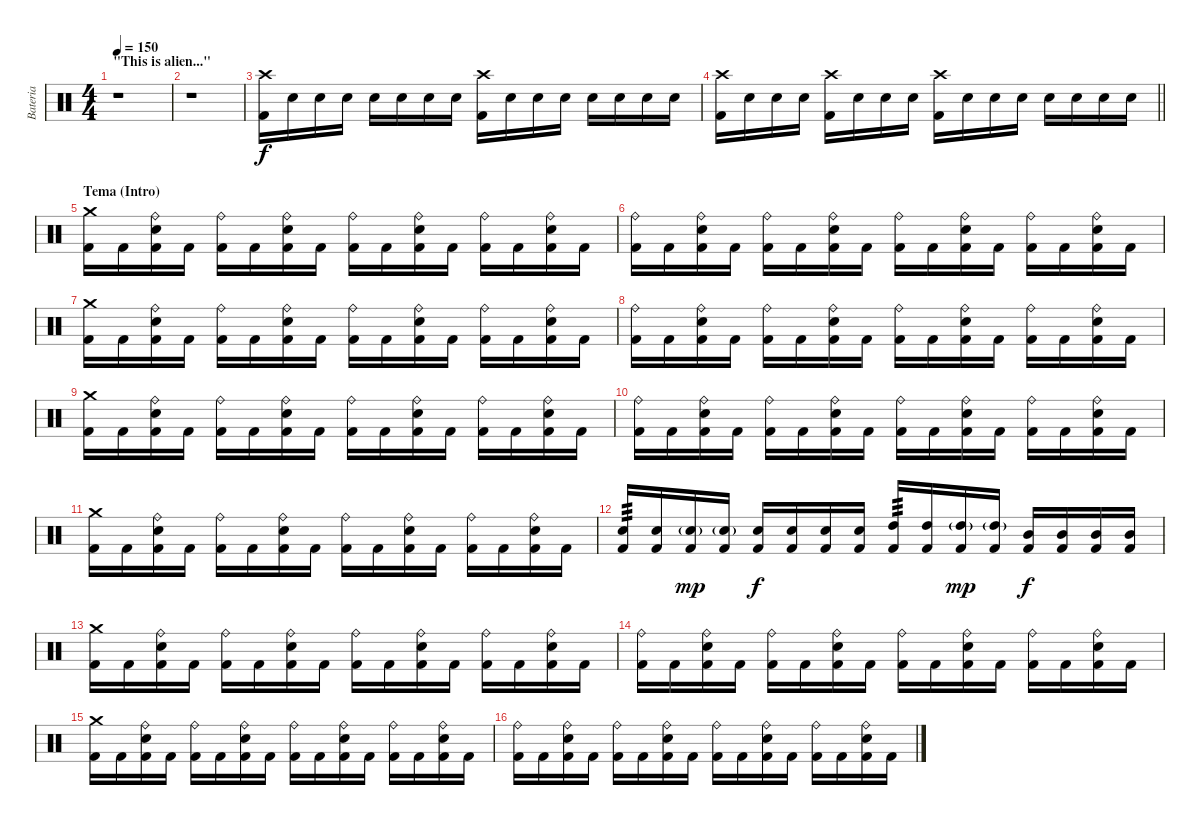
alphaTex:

\track ("Bateria" "Bateria") {instrument percussion}
\staff {score}
\articulation defaults
\ts (4 4)
\section ("" "\"This is alien...\"")
\tempo 150
\clef neutral
\ks c
r.1{dy f} |
r.1 |
("Crash high (hit)" "Kick (hit) 2").16 "Electric Snare (hit)".16 "Electric Snare (hit)".16 "Electric Snare (hit)".16 "Electric Snare (hit)".16 "Electric Snare (hit)".16 "Electric Snare (hit)".16 "Electric Snare (hit)".16 ("Crash high (hit)" "Kick (hit) 2").16 "Electric Snare (hit)".16 "Electric Snare (hit)".16 "Electric Snare (hit)".16 "Electric Snare (hit)".16 "Electric Snare (hit)".16 "Electric Snare (hit)".16 "Electric Snare (hit)".16 |
\barLineRight lightlight
("Crash high (hit)" "Kick (hit) 2").16 "Electric Snare (hit)".16 "Electric Snare (hit)".16 "Electric Snare (hit)".16 ("Crash high (hit)" "Kick (hit) 2").16 "Electric Snare (hit)".16 "Electric Snare (hit)".16 "Electric Snare (hit)".16 ("Crash high (hit)" "Kick (hit) 2").16 "Electric Snare (hit)".16 "Electric Snare (hit)".16 "Electric Snare (hit)".16 "Electric Snare (hit)".16 "Electric Snare (hit)".16 "Electric Snare (hit)".16 "Electric Snare (hit)".16 |
\section ("" "Tema (Intro)")
("Crash medium (hit)" "Kick (hit) 2").16 "Kick (hit) 2".16 ("Ride (bell)" "Electric Snare (hit)" "Kick (hit) 2").16 "Kick (hit) 2".16 ("Ride (bell)" "Kick (hit) 2").16 "Kick (hit) 2".16 ("Ride (bell)" "Electric Snare (hit)" "Kick (hit) 2").16 "Kick (hit) 2".16 ("Ride (bell)" "Kick (hit) 2").16 "Kick (hit) 2".16 ("Ride (bell)" "Electric Snare (hit)" "Kick (hit) 2").16 "Kick (hit) 2".16 ("Ride (bell)" "Kick (hit) 2").16 "Kick (hit) 2".16 ("Ride (bell)" "Electric Snare (hit)" "Kick (hit) 2").16 "Kick (hit) 2".16 |
("Ride (bell)" "Kick (hit) 2").16 "Kick (hit) 2".16 ("Ride (bell)" "Electric Snare (hit)" "Kick (hit) 2").16 "Kick (hit) 2".16 ("Ride (bell)" "Kick (hit) 2").16 "Kick (hit) 2".16 ("Ride (bell)" "Electric Snare (hit)" "Kick (hit) 2").16 "Kick (hit) 2".16 ("Ride (bell)" "Kick (hit) 2").16 "Kick (hit) 2".16 ("Ride (bell)" "Electric Snare (hit)" "Kick (hit) 2").16 "Kick (hit) 2".16 ("Ride (bell)" "Kick (hit) 2").16 "Kick (hit) 2".16 ("Ride (bell)" "Electric Snare (hit)" "Kick (hit) 2").16 "Kick (hit) 2".16 |
("Crash medium (hit)" "Kick (hit) 2").16 "Kick (hit) 2".16 ("Ride (bell)" "Electric Snare (hit)" "Kick (hit) 2").16 "Kick (hit) 2".16 ("Ride (bell)" "Kick (hit) 2").16 "Kick (hit) 2".16 ("Ride (bell)" "Electric Snare (hit)" "Kick (hit) 2").16 "Kick (hit) 2".16 ("Ride (bell)" "Kick (hit) 2").16 "Kick (hit) 2".16 ("Ride (bell)" "Electric Snare (hit)" "Kick (hit) 2").16 "Kick (hit) 2".16 ("Ride (bell)" "Kick (hit) 2").16 "Kick (hit) 2".16 ("Ride (bell)" "Electric Snare (hit)" "Kick (hit) 2").16 "Kick (hit) 2".16 |
("Ride (bell)" "Kick (hit) 2").16 "Kick (hit) 2".16 ("Ride (bell)" "Electric Snare (hit)" "Kick (hit) 2").16 "Kick (hit) 2".16 ("Ride (bell)" "Kick (hit) 2").16 "Kick (hit) 2".16 ("Ride (bell)" "Electric Snare (hit)" "Kick (hit) 2").16 "Kick (hit) 2".16 ("Ride (bell)" "Kick (hit) 2").16 "Kick (hit) 2".16 ("Ride (bell)" "Electric Snare (hit)" "Kick (hit) 2").16 "Kick (hit) 2".16 ("Ride (bell)" "Kick (hit) 2").16 "Kick (hit) 2".16 ("Ride (bell)" "Electric Snare (hit)" "Kick (hit) 2").16 "Kick (hit) 2".16 |
("Crash medium (hit)" "Kick (hit) 2").16 "Kick (hit) 2".16 ("Ride (bell)" "Electric Snare (hit)" "Kick (hit) 2").16 "Kick (hit) 2".16 ("Ride (bell)" "Kick (hit) 2").16 "Kick (hit) 2".16 ("Ride (bell)" "Electric Snare (hit)" "Kick (hit) 2").16 "Kick (hit) 2".16 ("Ride (bell)" "Kick (hit) 2").16 "Kick (hit) 2".16 ("Ride (bell)" "Electric Snare (hit)" "Kick (hit) 2").16 "Kick (hit) 2".16 ("Ride (bell)" "Kick (hit) 2").16 "Kick (hit) 2".16 ("Ride (bell)" "Electric Snare (hit)" "Kick (hit) 2").16 "Kick (hit) 2".16 |
("Ride (bell)" "Kick (hit) 2").16 "Kick (hit) 2".16 ("Ride (bell)" "Electric Snare (hit)" "Kick (hit) 2").16 "Kick (hit) 2".16 ("Ride (bell)" "Kick (hit) 2").16 "Kick (hit) 2".16 ("Ride (bell)" "Electric Snare (hit)" "Kick (hit) 2").16 "Kick (hit) 2".16 ("Ride (bell)" "Kick (hit) 2").16 "Kick (hit) 2".16 ("Ride (bell)" "Electric Snare (hit)" "Kick (hit) 2").16 "Kick (hit) 2".16 ("Ride (bell)" "Kick (hit) 2").16 "Kick (hit) 2".16 ("Ride (bell)" "Electric Snare (hit)" "Kick (hit) 2").16 "Kick (hit) 2".16 |
("Crash medium (hit)" "Kick (hit) 2").16 "Kick (hit) 2".16 ("Ride (bell)" "Electric Snare (hit)" "Kick (hit) 2").16 "Kick (hit) 2".16 ("Ride (bell)" "Kick (hit) 2").16 "Kick (hit) 2".16 ("Ride (bell)" "Electric Snare (hit)" "Kick (hit) 2").16 "Kick (hit) 2".16 ("Ride (bell)" "Kick (hit) 2").16 "Kick (hit) 2".16 ("Ride (bell)" "Electric Snare (hit)" "Kick (hit) 2").16 "Kick (hit) 2".16 ("Ride (bell)" "Kick (hit) 2").16 "Kick (hit) 2".16 ("Ride (bell)" "Electric Snare (hit)" "Kick (hit) 2").16 "Kick (hit) 2".16 |
("Electric Snare (hit)" "Kick (hit) 2").16{tp 3} ("Electric Snare (hit)" "Kick (hit) 2").16 ("Electric Snare (hit)"{g} "Kick (hit) 2").16{dy mp} ("Electric Snare (hit)"{g} "Kick (hit) 2").16 ("Electric Snare (hit)" "Kick (hit) 2").16{dy f} ("Electric Snare (hit)" "Kick (hit) 2").16 ("Electric Snare (hit)" "Kick (hit) 2").16 ("Electric Snare (hit)" "Kick (hit) 2").16 ("High Tom (hit)" "Kick (hit) 2").16{tp 3} ("High Tom (hit)" "Kick (hit) 2").16 ("High Tom (hit)"{g} "Kick (hit) 2").16{dy mp} ("High Tom (hit)"{g} "Kick (hit) 2").16 ("Mid Tom (hit)" "Kick (hit) 2").16{dy f} ("Mid Tom (hit)" "Kick (hit) 2").16 ("Mid Tom (hit)" "Kick (hit) 2").16 ("Mid Tom (hit)" "Kick (hit) 2").16 |
("Crash medium (hit)" "Kick (hit) 2").16 "Kick (hit) 2".16 ("Ride (bell)" "Electric Snare (hit)" "Kick (hit) 2").16 "Kick (hit) 2".16 ("Ride (bell)" "Kick (hit) 2").16 "Kick (hit) 2".16 ("Ride (bell)" "Electric Snare (hit)" "Kick (hit) 2").16 "Kick (hit) 2".16 ("Ride (bell)" "Kick (hit) 2").16 "Kick (hit) 2".16 ("Ride (bell)" "Electric Snare (hit)" "Kick (hit) 2").16 "Kick (hit) 2".16 ("Ride (bell)" "Kick (hit) 2").16 "Kick (hit) 2".16 ("Ride (bell)" "Electric Snare (hit)" "Kick (hit) 2").16 "Kick (hit) 2".16 |
("Ride (bell)" "Kick (hit) 2").16 "Kick (hit) 2".16 ("Ride (bell)" "Electric Snare (hit)" "Kick (hit) 2").16 "Kick (hit) 2".16 ("Ride (bell)" "Kick (hit) 2").16 "Kick (hit) 2".16 ("Ride (bell)" "Electric Snare (hit)" "Kick (hit) 2").16 "Kick (hit) 2".16 ("Ride (bell)" "Kick (hit) 2").16 "Kick (hit) 2".16 ("Ride (bell)" "Electric Snare (hit)" "Kick (hit) 2").16 "Kick (hit) 2".16 ("Ride (bell)" "Kick (hit) 2").16 "Kick (hit) 2".16 ("Ride (bell)" "Electric Snare (hit)" "Kick (hit) 2").16 "Kick (hit) 2".16 |
("Crash medium (hit)" "Kick (hit) 2").16 "Kick (hit) 2".16 ("Ride (bell)" "Electric Snare (hit)" "Kick (hit) 2").16 "Kick (hit) 2".16 ("Ride (bell)" "Kick (hit) 2").16 "Kick (hit) 2".16 ("Ride (bell)" "Electric Snare (hit)" "Kick (hit) 2").16 "Kick (hit) 2".16 ("Ride (bell)" "Kick (hit) 2").16 "Kick (hit) 2".16 ("Ride (bell)" "Electric Snare (hit)" "Kick (hit) 2").16 "Kick (hit) 2".16 ("Ride (bell)" "Kick (hit) 2").16 "Kick (hit) 2".16 ("Ride (bell)" "Electric Snare (hit)" "Kick (hit) 2").16 "Kick (hit) 2".16 |
("Ride (bell)" "Kick (hit) 2").16 "Kick (hit) 2".16 ("Ride (bell)" "Electric Snare (hit)" "Kick (hit) 2").16 "Kick (hit) 2".16 ("Ride (bell)" "Kick (hit) 2").16 "Kick (hit) 2".16 ("Ride (bell)" "Electric Snare (hit)" "Kick (hit) 2").16 "Kick (hit) 2".16 ("Ride (bell)" "Kick (hit) 2").16 "Kick (hit) 2".16 ("Ride (bell)" "Electric Snare (hit)" "Kick (hit) 2").16 "Kick (hit) 2".16 ("Ride (bell)" "Kick (hit) 2").16 "Kick (hit) 2".16 ("Ride (bell)" "Electric Snare (hit)" "Kick (hit) 2").16 "Kick (hit) 2".16
